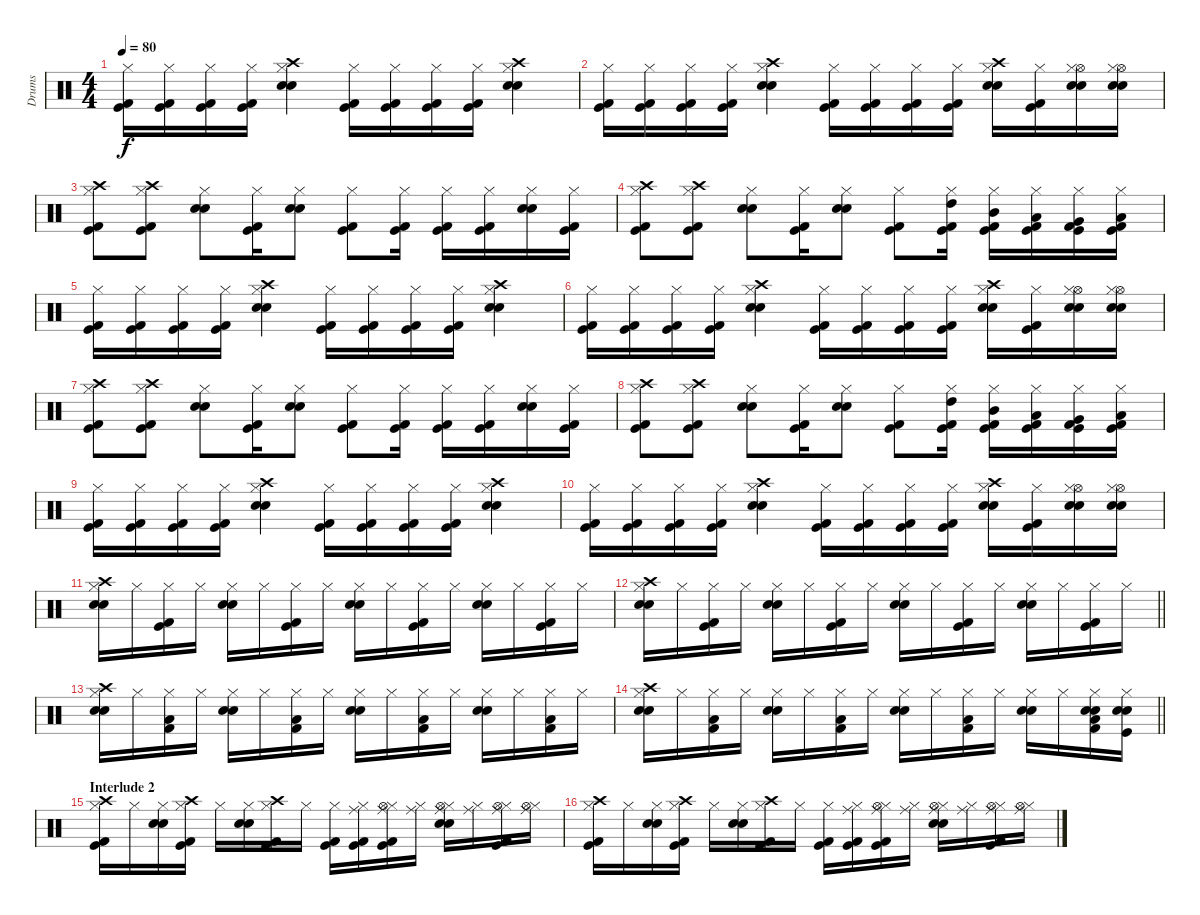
\track ("Drums" "Drums") {instrument percussion}
\staff {score}
\articulation defaults
\ts (4 4)
\tempo 80
\clef neutral
\ks c
("Hi-Hat (closed)" "Kick (hit) 2" "Kick (hit)").16{dy f} ("Hi-Hat (closed)" "Kick (hit) 2" "Kick (hit)").16 ("Hi-Hat (closed)" "Kick (hit) 2" "Kick (hit)").16 ("Hi-Hat (closed)" "Kick (hit) 2" "Kick (hit)").16 ("Crash high (hit)" "Hi-Hat (closed)" "Snare (hit) 2" "Electric Snare (hit)").4 ("Hi-Hat (closed)" "Kick (hit) 2" "Kick (hit)").16 ("Hi-Hat (closed)" "Kick (hit) 2" "Kick (hit)").16 ("Hi-Hat (closed)" "Kick (hit) 2" "Kick (hit)").16 ("Hi-Hat (closed)" "Kick (hit) 2" "Kick (hit)").16 ("Crash high (hit)" "Hi-Hat (closed)" "Snare (hit) 2" "Electric Snare (hit)").4 |
("Hi-Hat (closed)" "Kick (hit) 2" "Kick (hit)").16 ("Hi-Hat (closed)" "Kick (hit) 2" "Kick (hit)").16 ("Hi-Hat (closed)" "Kick (hit) 2" "Kick (hit)").16 ("Hi-Hat (closed)" "Kick (hit) 2" "Kick (hit)").16 ("Crash high (hit)" "Hi-Hat (closed)" "Snare (hit) 2" "Electric Snare (hit)").4 ("Hi-Hat (closed)" "Kick (hit) 2" "Kick (hit)").16 ("Hi-Hat (closed)" "Kick (hit) 2" "Kick (hit)").16 ("Hi-Hat (closed)" "Kick (hit) 2" "Kick (hit)").16 ("Hi-Hat (closed)" "Kick (hit) 2" "Kick (hit)").16 ("Crash high (hit)" "Hi-Hat (closed)" "Snare (hit) 2" "Electric Snare (hit)").16 ("Hi-Hat (closed)" "Kick (hit) 2" "Kick (hit)").16 ("Hi-Hat (open)" "Hi-Hat (closed)" "Snare (hit) 2" "Electric Snare (hit)").16 ("Hi-Hat (open)" "Hi-Hat (closed)" "Snare (hit) 2" "Electric Snare (hit)").16 |
("Crash high (hit)" "Hi-Hat (closed)" "Kick (hit) 2" "Kick (hit)").8 ("Crash high (hit)" "Hi-Hat (closed)" "Kick (hit) 2" "Kick (hit)").8 ("Hi-Hat (closed)" "Snare (hit) 2" "Electric Snare (hit)").8 ("Hi-Hat (closed)" "Kick (hit) 2" "Kick (hit)").16 ("Hi-Hat (closed)" "Snare (hit) 2" "Electric Snare (hit)").8 ("Hi-Hat (closed)" "Kick (hit) 2" "Kick (hit)").8 ("Hi-Hat (closed)" "Kick (hit) 2" "Kick (hit)").16 ("Hi-Hat (closed)" "Kick (hit) 2" "Kick (hit)").16 ("Hi-Hat (closed)" "Kick (hit) 2" "Kick (hit)").16 ("Hi-Hat (closed)" "Snare (hit) 2" "Electric Snare (hit)").16 ("Hi-Hat (closed)" "Kick (hit) 2" "Kick (hit)").16 |
("Crash high (hit)" "Hi-Hat (closed)" "Kick (hit) 2" "Kick (hit)").8 ("Crash high (hit)" "Hi-Hat (closed)" "Kick (hit) 2" "Kick (hit)").8 ("Hi-Hat (closed)" "Snare (hit) 2" "Electric Snare (hit)").8 ("Hi-Hat (closed)" "Kick (hit) 2" "Kick (hit)").16 ("Hi-Hat (closed)" "Snare (hit) 2" "Electric Snare (hit)").8 ("Hi-Hat (closed)" "Kick (hit) 2" "Kick (hit)").8 ("Hi-Hat (closed)" "High Tom (hit)" "Kick (hit) 2" "Kick (hit)").16 ("Hi-Hat (closed)" "Mid Tom (hit)" "Kick (hit) 2" "Kick (hit)").16 ("Hi-Hat (closed)" "Low Tom (hit)" "Kick (hit) 2" "Kick (hit)").16 ("Hi-Hat (closed)" "Very Low Tom (hit)" "Kick (hit) 2" "Kick (hit)").16 ("Hi-Hat (closed)" "Low Floor Tom (hit)" "Kick (hit) 2" "Kick (hit)").16 |
("Hi-Hat (closed)" "Kick (hit) 2" "Kick (hit)").16 ("Hi-Hat (closed)" "Kick (hit) 2" "Kick (hit)").16 ("Hi-Hat (closed)" "Kick (hit) 2" "Kick (hit)").16 ("Hi-Hat (closed)" "Kick (hit) 2" "Kick (hit)").16 ("Crash high (hit)" "Hi-Hat (closed)" "Snare (hit) 2" "Electric Snare (hit)").4 ("Hi-Hat (closed)" "Kick (hit) 2" "Kick (hit)").16 ("Hi-Hat (closed)" "Kick (hit) 2" "Kick (hit)").16 ("Hi-Hat (closed)" "Kick (hit) 2" "Kick (hit)").16 ("Hi-Hat (closed)" "Kick (hit) 2" "Kick (hit)").16 ("Crash high (hit)" "Hi-Hat (closed)" "Snare (hit) 2" "Electric Snare (hit)").4 |
("Hi-Hat (closed)" "Kick (hit) 2" "Kick (hit)").16 ("Hi-Hat (closed)" "Kick (hit) 2" "Kick (hit)").16 ("Hi-Hat (closed)" "Kick (hit) 2" "Kick (hit)").16 ("Hi-Hat (closed)" "Kick (hit) 2" "Kick (hit)").16 ("Crash high (hit)" "Hi-Hat (closed)" "Snare (hit) 2" "Electric Snare (hit)").4 ("Hi-Hat (closed)" "Kick (hit) 2" "Kick (hit)").16 ("Hi-Hat (closed)" "Kick (hit) 2" "Kick (hit)").16 ("Hi-Hat (closed)" "Kick (hit) 2" "Kick (hit)").16 ("Hi-Hat (closed)" "Kick (hit) 2" "Kick (hit)").16 ("Crash high (hit)" "Hi-Hat (closed)" "Snare (hit) 2" "Electric Snare (hit)").16 ("Hi-Hat (closed)" "Kick (hit) 2" "Kick (hit)").16 ("Hi-Hat (open)" "Hi-Hat (closed)" "Snare (hit) 2" "Electric Snare (hit)").16 ("Hi-Hat (open)" "Hi-Hat (closed)" "Snare (hit) 2" "Electric Snare (hit)").16 |
("Crash high (hit)" "Hi-Hat (closed)" "Kick (hit) 2" "Kick (hit)").8 ("Crash high (hit)" "Hi-Hat (closed)" "Kick (hit) 2" "Kick (hit)").8 ("Hi-Hat (closed)" "Snare (hit) 2" "Electric Snare (hit)").8 ("Hi-Hat (closed)" "Kick (hit) 2" "Kick (hit)").16 ("Hi-Hat (closed)" "Snare (hit) 2" "Electric Snare (hit)").8 ("Hi-Hat (closed)" "Kick (hit) 2" "Kick (hit)").8 ("Hi-Hat (closed)" "Kick (hit) 2" "Kick (hit)").16 ("Hi-Hat (closed)" "Kick (hit) 2" "Kick (hit)").16 ("Hi-Hat (closed)" "Kick (hit) 2" "Kick (hit)").16 ("Hi-Hat (closed)" "Snare (hit) 2" "Electric Snare (hit)").16 ("Hi-Hat (closed)" "Kick (hit) 2" "Kick (hit)").16 |
("Crash high (hit)" "Hi-Hat (closed)" "Kick (hit) 2" "Kick (hit)").8 ("Crash high (hit)" "Hi-Hat (closed)" "Kick (hit) 2" "Kick (hit)").8 ("Hi-Hat (closed)" "Snare (hit) 2" "Electric Snare (hit)").8 ("Hi-Hat (closed)" "Kick (hit) 2" "Kick (hit)").16 ("Hi-Hat (closed)" "Snare (hit) 2" "Electric Snare (hit)").8 ("Hi-Hat (closed)" "Kick (hit) 2" "Kick (hit)").8 ("Hi-Hat (closed)" "High Tom (hit)" "Kick (hit) 2" "Kick (hit)").16 ("Hi-Hat (closed)" "Mid Tom (hit)" "Kick (hit) 2" "Kick (hit)").16 ("Hi-Hat (closed)" "Low Tom (hit)" "Kick (hit) 2" "Kick (hit)").16 ("Hi-Hat (closed)" "Very Low Tom (hit)" "Kick (hit) 2" "Kick (hit)").16 ("Hi-Hat (closed)" "Low Floor Tom (hit)" "Kick (hit) 2" "Kick (hit)").16 |
("Hi-Hat (closed)" "Kick (hit) 2" "Kick (hit)").16 ("Hi-Hat (closed)" "Kick (hit) 2" "Kick (hit)").16 ("Hi-Hat (closed)" "Kick (hit) 2" "Kick (hit)").16 ("Hi-Hat (closed)" "Kick (hit) 2" "Kick (hit)").16 ("Crash high (hit)" "Hi-Hat (closed)" "Snare (hit) 2" "Electric Snare (hit)").4 ("Hi-Hat (closed)" "Kick (hit) 2" "Kick (hit)").16 ("Hi-Hat (closed)" "Kick (hit) 2" "Kick (hit)").16 ("Hi-Hat (closed)" "Kick (hit) 2" "Kick (hit)").16 ("Hi-Hat (closed)" "Kick (hit) 2" "Kick (hit)").16 ("Crash high (hit)" "Hi-Hat (closed)" "Snare (hit) 2" "Electric Snare (hit)").4 |
("Hi-Hat (closed)" "Kick (hit) 2" "Kick (hit)").16 ("Hi-Hat (closed)" "Kick (hit) 2" "Kick (hit)").16 ("Hi-Hat (closed)" "Kick (hit) 2" "Kick (hit)").16 ("Hi-Hat (closed)" "Kick (hit) 2" "Kick (hit)").16 ("Crash high (hit)" "Hi-Hat (closed)" "Snare (hit) 2" "Electric Snare (hit)").4 ("Hi-Hat (closed)" "Kick (hit) 2" "Kick (hit)").16 ("Hi-Hat (closed)" "Kick (hit) 2" "Kick (hit)").16 ("Hi-Hat (closed)" "Kick (hit) 2" "Kick (hit)").16 ("Hi-Hat (closed)" "Kick (hit) 2" "Kick (hit)").16 ("Crash high (hit)" "Hi-Hat (closed)" "Snare (hit) 2" "Electric Snare (hit)").16 ("Hi-Hat (closed)" "Kick (hit) 2" "Kick (hit)").16 ("Hi-Hat (open)" "Hi-Hat (closed)" "Snare (hit) 2" "Electric Snare (hit)").16 ("Hi-Hat (open)" "Hi-Hat (closed)" "Snare (hit) 2" "Electric Snare (hit)").16 |
("Crash high (hit)" "Hi-Hat (closed)" "Electric Snare (hit)" "Snare (hit) 2").16 "Hi-Hat (closed)".16 ("Hi-Hat (closed)" "Kick (hit) 2" "Kick (hit)").16 "Hi-Hat (closed)".16 ("Hi-Hat (closed)" "Electric Snare (hit)" "Snare (hit) 2").16 "Hi-Hat (closed)".16 ("Hi-Hat (closed)" "Kick (hit) 2" "Kick (hit)").16 "Hi-Hat (closed)".16 ("Hi-Hat (closed)" "Electric Snare (hit)" "Snare (hit) 2").16 "Hi-Hat (closed)".16 ("Hi-Hat (closed)" "Kick (hit) 2" "Kick (hit)").16 "Hi-Hat (closed)".16 ("Hi-Hat (closed)" "Electric Snare (hit)" "Snare (hit) 2").16 "Hi-Hat (closed)".16 ("Hi-Hat (closed)" "Kick (hit) 2" "Kick (hit)").16 "Hi-Hat (closed)".16 |
\barLineRight lightlight
("Crash high (hit)" "Hi-Hat (closed)" "Electric Snare (hit)" "Snare (hit) 2").16 "Hi-Hat (closed)".16 ("Hi-Hat (closed)" "Kick (hit) 2" "Kick (hit)").16 "Hi-Hat (closed)".16 ("Hi-Hat (closed)" "Electric Snare (hit)" "Snare (hit) 2").16 "Hi-Hat (closed)".16 ("Hi-Hat (closed)" "Kick (hit) 2" "Kick (hit)").16 "Hi-Hat (closed)".16 ("Hi-Hat (closed)" "Electric Snare (hit)" "Snare (hit) 2").16 "Hi-Hat (closed)".16 ("Hi-Hat (closed)" "Kick (hit) 2" "Kick (hit)").16 "Hi-Hat (closed)".16 ("Hi-Hat (closed)" "Electric Snare (hit)" "Snare (hit) 2").16 "Hi-Hat (closed)".16 ("Hi-Hat (closed)" "Kick (hit) 2" "Kick (hit)").16 "Hi-Hat (closed)".16 |
("Crash high (hit)" "Hi-Hat (closed)" "Electric Snare (hit)" "Snare (hit) 2").16 "Hi-Hat (closed)".16 ("Hi-Hat (closed)" "Kick (hit) 2" "Low Floor Tom (hit)").16 "Hi-Hat (closed)".16 ("Hi-Hat (closed)" "Electric Snare (hit)" "Snare (hit) 2").16 "Hi-Hat (closed)".16 ("Hi-Hat (closed)" "Kick (hit) 2" "Low Floor Tom (hit)").16 "Hi-Hat (closed)".16 ("Hi-Hat (closed)" "Electric Snare (hit)" "Snare (hit) 2").16 "Hi-Hat (closed)".16 ("Hi-Hat (closed)" "Kick (hit) 2" "Low Floor Tom (hit)").16 "Hi-Hat (closed)".16 ("Hi-Hat (closed)" "Electric Snare (hit)" "Snare (hit) 2").16 "Hi-Hat (closed)".16 ("Hi-Hat (closed)" "Kick (hit) 2" "Low Floor Tom (hit)").16 "Hi-Hat (closed)".16 |
\barLineRight lightlight
("Crash high (hit)" "Hi-Hat (closed)" "Electric Snare (hit)" "Snare (hit) 2").16 "Hi-Hat (closed)".16 ("Hi-Hat (closed)" "Kick (hit) 2" "Low Floor Tom (hit)").16 "Hi-Hat (closed)".16 ("Hi-Hat (closed)" "Electric Snare (hit)" "Snare (hit) 2").16 "Hi-Hat (closed)".16 ("Hi-Hat (closed)" "Kick (hit) 2" "Low Floor Tom (hit)").16 "Hi-Hat (closed)".16 ("Hi-Hat (closed)" "Electric Snare (hit)" "Snare (hit) 2").16 "Hi-Hat (closed)".16 ("Hi-Hat (closed)" "Kick (hit) 2" "Low Floor Tom (hit)").16 "Hi-Hat (closed)".16 ("Hi-Hat (closed)" "Electric Snare (hit)" "Snare (hit) 2").16 "Hi-Hat (closed)".16 ("Hi-Hat (closed)" "Electric Snare (hit)" "Snare (hit) 2" "Kick (hit) 2" "Low Floor Tom (hit)").16 ("Hi-Hat (closed)" "Electric Snare (hit)" "Snare (hit) 2" "Kick (hit)").16 |
\section ("" "Interlude 2")
("Crash high (hit)" "Hi-Hat (closed)" "Kick (hit) 2" "Kick (hit)").16 "Hi-Hat (closed)".16 ("Hi-Hat (closed)" "Snare (hit) 2" "Electric Snare (hit)").16 ("Crash high (hit)" "Hi-Hat (closed)" "Kick (hit) 2" "Kick (hit)").16 "Hi-Hat (closed)".16 ("Hi-Hat (closed)" "Snare (hit) 2" "Electric Snare (hit)").16 ("Crash high (hit)" "Hi-Hat (closed)" "Kick (hit) 2" "Kick (hit)").16 "Hi-Hat (closed)".16 ("Hi-Hat (closed)" "Kick (hit) 2" "Kick (hit)").16 ("Ride (middle)" "Hi-Hat (closed)" "Kick (hit) 2" "Kick (hit)").16 ("Ride (middle)" "Hi-Hat (closed)" "Hi-Hat (open)" "Kick (hit) 2" "Kick (hit)").16 ("Ride (middle)" "Hi-Hat (closed)").16 ("Ride (middle)" "Hi-Hat (closed)" "Snare (hit) 2" "Electric Snare (hit)" "Hi-Hat (open)").16 ("Ride (middle)" "Hi-Hat (closed)").16 ("Ride (middle)" "Hi-Hat (closed)" "Hi-Hat (open)" "Kick (hit) 2" "Kick (hit)").16 ("Ride (middle)" "Hi-Hat (closed)" "Hi-Hat (open)").16 |
("Crash high (hit)" "Hi-Hat (closed)" "Kick (hit) 2" "Kick (hit)").16 "Hi-Hat (closed)".16 ("Hi-Hat (closed)" "Snare (hit) 2" "Electric Snare (hit)").16 ("Crash high (hit)" "Hi-Hat (closed)" "Kick (hit) 2" "Kick (hit)").16 "Hi-Hat (closed)".16 ("Hi-Hat (closed)" "Snare (hit) 2" "Electric Snare (hit)").16 ("Crash high (hit)" "Hi-Hat (closed)" "Kick (hit) 2" "Kick (hit)").16 "Hi-Hat (closed)".16 ("Hi-Hat (closed)" "Kick (hit) 2" "Kick (hit)").16 ("Ride (middle)" "Hi-Hat (closed)" "Kick (hit) 2" "Kick (hit)").16 ("Ride (middle)" "Hi-Hat (closed)" "Hi-Hat (open)" "Kick (hit) 2" "Kick (hit)").16 ("Ride (middle)" "Hi-Hat (closed)").16 ("Ride (middle)" "Hi-Hat (closed)" "Snare (hit) 2" "Electric Snare (hit)" "Hi-Hat (open)").16 ("Ride (middle)" "Hi-Hat (closed)").16 ("Ride (middle)" "Hi-Hat (closed)" "Hi-Hat (open)" "Kick (hit) 2" "Kick (hit)").16 ("Ride (middle)" "Hi-Hat (closed)" "Hi-Hat (open)").16
